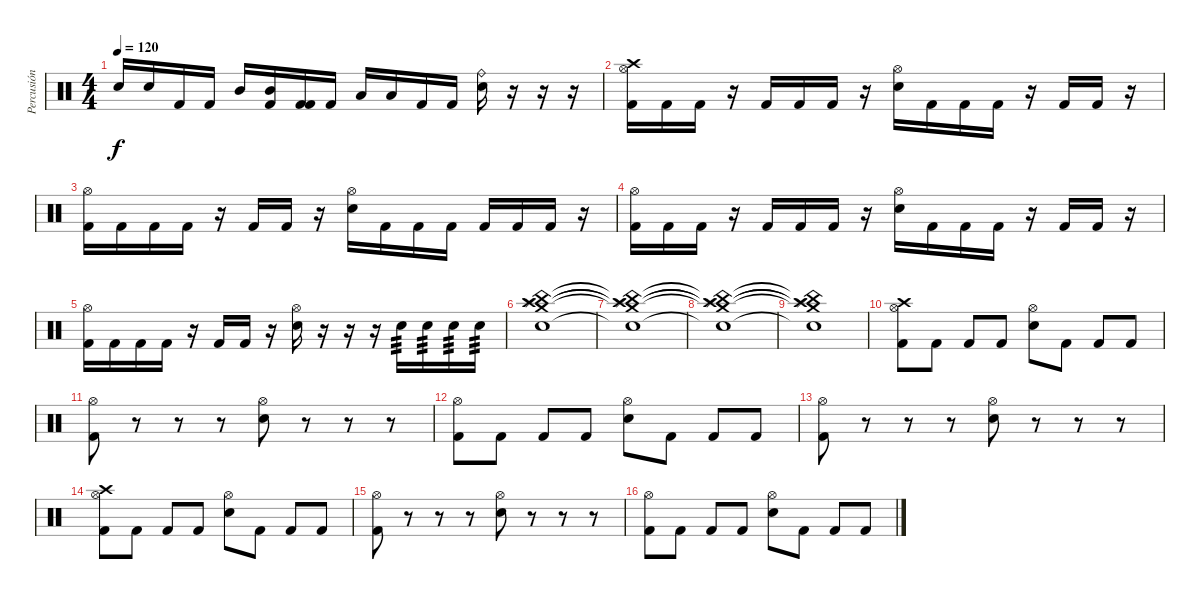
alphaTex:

\track ("Percusión" "Percusión") {instrument percussion}
\staff {score}
\articulation defaults
\ts (4 4)
\tempo 120
\clef neutral
\ks c "Electric Snare (hit)".16{dy f} "Electric Snare (hit)".16 "Kick (hit) 2".16 "Kick (hit) 2".16 "Mid Tom (hit)".16
("Kick (hit) 2" "Mid Tom (hit)").16 ("Kick (hit) 2" "Kick (hit) 2").16 "Kick (hit) 2".16 "Low Tom (hit)".16 "Low Tom (hit)".16 "Kick (hit) 2".16 "Kick (hit) 2".16 ("Electric Snare (hit)" "Ride (bell)").16 r.16 r.16 r.16 |
("Hi-Hat (open)" "Kick (hit) 2" "Crash high (hit)").16 "Kick (hit) 2".16 "Kick (hit) 2".16 r.16 "Kick (hit) 2".16 "Kick (hit) 2".16 "Kick (hit) 2".16 r.16 ("Hi-Hat (open)" "Electric Snare (hit)").16 "Kick (hit) 2".16 "Kick (hit) 2".16 "Kick (hit) 2".16 r.16 "Kick (hit) 2".16 "Kick (hit) 2".16 r.16 |
("Hi-Hat (open)" "Kick (hit) 2").16 "Kick (hit) 2".16 "Kick (hit) 2".16 "Kick (hit) 2".16 r.16 "Kick (hit) 2".16 "Kick (hit) 2".16 r.16 ("Hi-Hat (open)" "Electric Snare (hit)").16 "Kick (hit) 2".16 "Kick (hit) 2".16 "Kick (hit) 2".16 "Kick (hit) 2".16 "Kick (hit) 2".16 "Kick (hit) 2".16 r.16 |
("Hi-Hat (open)" "Kick (hit) 2").16 "Kick (hit) 2".16 "Kick (hit) 2".16 r.16 "Kick (hit) 2".16 "Kick (hit) 2".16 "Kick (hit) 2".16 r.16 ("Hi-Hat (open)" "Electric Snare (hit)").16 "Kick (hit) 2".16 "Kick (hit) 2".16 "Kick (hit) 2".16 r.16 "Kick (hit) 2".16 "Kick (hit) 2".16 r.16 |
("Hi-Hat (open)" "Kick (hit) 2").16 "Kick (hit) 2".16 "Kick (hit) 2".16 "Kick (hit) 2".16 r.16 "Kick (hit) 2".16 "Kick (hit) 2".16 r.16 ("Hi-Hat (open)" "Electric Snare (hit)").16 r.16 r.16 r.16 "Electric Snare (hit)".16{tp 3} "Electric Snare (hit)".16{tp 3} "Electric Snare (hit)".16{tp 3} "Electric Snare (hit)".16{tp 3} |
("Snare (hit) 2" "Crash high (hit)" "Crash medium (hit)" "China (hit)" "Splash (hit)").1 |
("Snare (hit) 2"{t} "Crash high (hit)"{t} "Crash medium (hit)"{t} "China (hit)"{t} "Splash (hit)"{t}).1 |
("Snare (hit) 2"{t} "Crash high (hit)"{t} "Crash medium (hit)"{t} "China (hit)"{t} "Splash (hit)"{t}).1 |
("Snare (hit) 2"{t} "Crash high (hit)"{t} "Crash medium (hit)"{t} "China (hit)"{t} "Splash (hit)"{t}).1 |
("Hi-Hat (open)" "Kick (hit) 2" "Crash high (hit)").8 "Kick (hit) 2".8 "Kick (hit) 2".8 "Kick (hit) 2".8 ("Hi-Hat (open)" "Snare (hit) 2").8 "Kick (hit) 2".8 "Kick (hit) 2".8 "Kick (hit) 2".8 |
("Hi-Hat (open)" "Kick (hit) 2").8 r.8 r.8 r.8 ("Hi-Hat (open)" "Snare (hit) 2").8 r.8 r.8 r.8 |
("Hi-Hat (open)" "Kick (hit) 2").8 "Kick (hit) 2".8 "Kick (hit) 2".8 "Kick (hit) 2".8 ("Hi-Hat (open)" "Snare (hit) 2").8 "Kick (hit) 2".8 "Kick (hit) 2".8 "Kick (hit) 2".8 |
("Hi-Hat (open)" "Kick (hit) 2").8 r.8 r.8 r.8 ("Hi-Hat (open)" "Snare (hit) 2").8 r.8 r.8 r.8 |
("Hi-Hat (open)" "Kick (hit) 2" "Crash high (hit)").8 "Kick (hit) 2".8 "Kick (hit) 2".8 "Kick (hit) 2".8 ("Hi-Hat (open)" "Snare (hit) 2").8 "Kick (hit) 2".8 "Kick (hit) 2".8 "Kick (hit) 2".8 |
("Hi-Hat (open)" "Kick (hit) 2").8 r.8 r.8 r.8 ("Hi-Hat (open)" "Snare (hit) 2").8 r.8 r.8 r.8 |
("Hi-Hat (open)" "Kick (hit) 2").8 "Kick (hit) 2".8 "Kick (hit) 2".8 "Kick (hit) 2".8 ("Hi-Hat (open)" "Snare (hit) 2").8 "Kick (hit) 2".8 "Kick (hit) 2".8 "Kick (hit) 2".8
